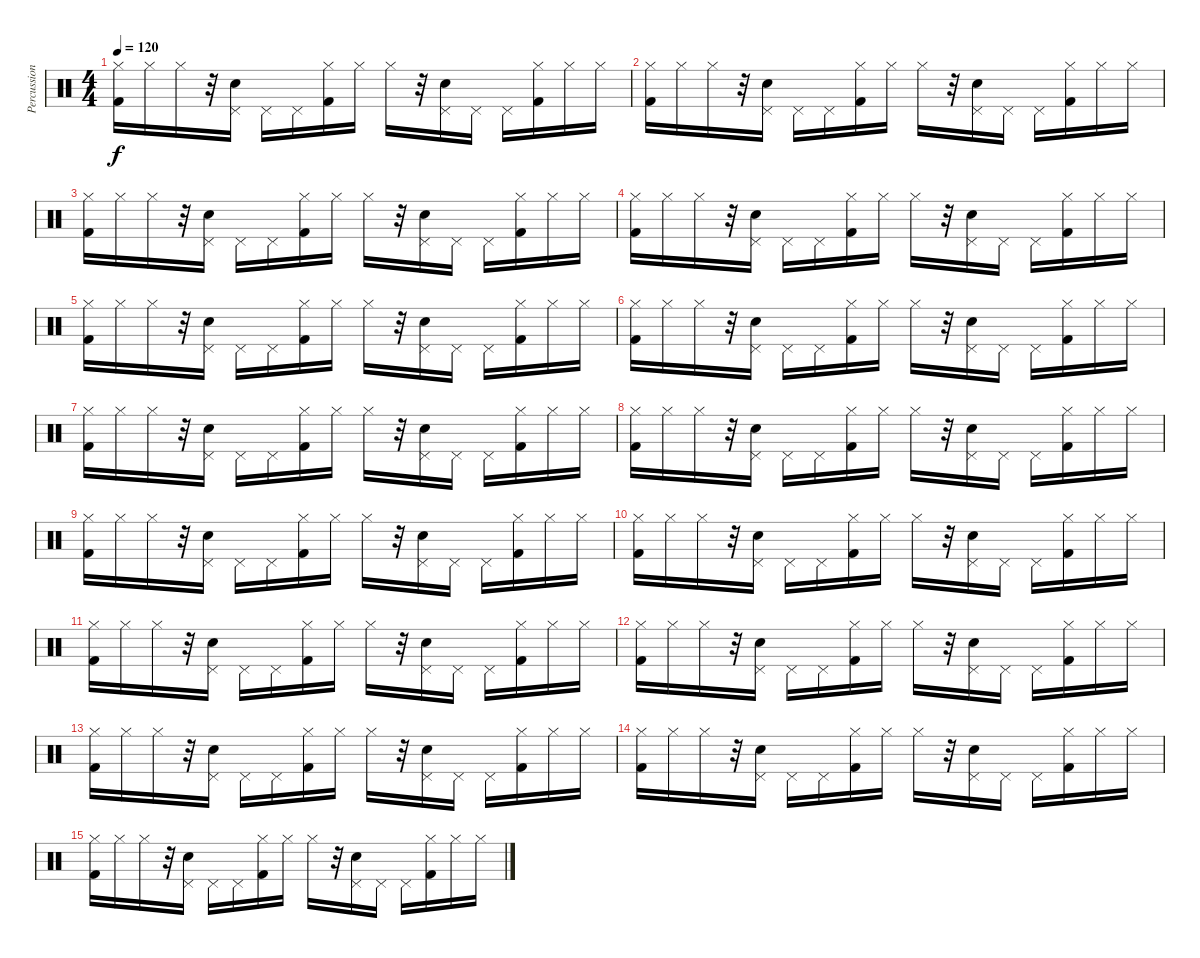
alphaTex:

\track ("Percussioni" "Percussion") {instrument percussion}
\staff {score}
\articulation defaults
\ts (4 4)
\tempo 120
\clef neutral
\ks c
("Hi-Hat (closed)" "Kick (hit) 2").16{dy f} "Hi-Hat (closed)".16 "Hi-Hat (closed)".16 r.32 ("Pedal Hi-Hat (hit)" "Electric Snare (hit)").16 "Pedal Hi-Hat (hit)".16 "Pedal Hi-Hat (hit)".16 ("Hi-Hat (closed)" "Kick (hit) 2").16 "Hi-Hat (closed)".16 "Hi-Hat (closed)".16 r.32 ("Pedal Hi-Hat (hit)" "Electric Snare (hit)").16 "Pedal Hi-Hat (hit)".16 "Pedal Hi-Hat (hit)".16 ("Hi-Hat (closed)" "Kick (hit) 2").16 "Hi-Hat (closed)".16 "Hi-Hat (closed)".16 |
("Hi-Hat (closed)" "Kick (hit) 2").16 "Hi-Hat (closed)".16 "Hi-Hat (closed)".16 r.32 ("Pedal Hi-Hat (hit)" "Electric Snare (hit)").16 "Pedal Hi-Hat (hit)".16 "Pedal Hi-Hat (hit)".16 ("Hi-Hat (closed)" "Kick (hit) 2").16 "Hi-Hat (closed)".16 "Hi-Hat (closed)".16 r.32 ("Pedal Hi-Hat (hit)" "Electric Snare (hit)").16 "Pedal Hi-Hat (hit)".16 "Pedal Hi-Hat (hit)".16 ("Hi-Hat (closed)" "Kick (hit) 2").16 "Hi-Hat (closed)".16 "Hi-Hat (closed)".16 |
("Hi-Hat (closed)" "Kick (hit) 2").16 "Hi-Hat (closed)".16 "Hi-Hat (closed)".16 r.32 ("Pedal Hi-Hat (hit)" "Electric Snare (hit)").16 "Pedal Hi-Hat (hit)".16 "Pedal Hi-Hat (hit)".16 ("Hi-Hat (closed)" "Kick (hit) 2").16 "Hi-Hat (closed)".16 "Hi-Hat (closed)".16 r.32 ("Pedal Hi-Hat (hit)" "Electric Snare (hit)").16 "Pedal Hi-Hat (hit)".16 "Pedal Hi-Hat (hit)".16 ("Hi-Hat (closed)" "Kick (hit) 2").16 "Hi-Hat (closed)".16 "Hi-Hat (closed)".16 |
("Hi-Hat (closed)" "Kick (hit) 2").16 "Hi-Hat (closed)".16 "Hi-Hat (closed)".16 r.32 ("Pedal Hi-Hat (hit)" "Electric Snare (hit)").16 "Pedal Hi-Hat (hit)".16 "Pedal Hi-Hat (hit)".16 ("Hi-Hat (closed)" "Kick (hit) 2").16 "Hi-Hat (closed)".16 "Hi-Hat (closed)".16 r.32 ("Pedal Hi-Hat (hit)" "Electric Snare (hit)").16 "Pedal Hi-Hat (hit)".16 "Pedal Hi-Hat (hit)".16 ("Hi-Hat (closed)" "Kick (hit) 2").16 "Hi-Hat (closed)".16 "Hi-Hat (closed)".16 |
("Hi-Hat (closed)" "Kick (hit) 2").16 "Hi-Hat (closed)".16 "Hi-Hat (closed)".16 r.32 ("Pedal Hi-Hat (hit)" "Electric Snare (hit)").16 "Pedal Hi-Hat (hit)".16 "Pedal Hi-Hat (hit)".16 ("Hi-Hat (closed)" "Kick (hit) 2").16 "Hi-Hat (closed)".16 "Hi-Hat (closed)".16 r.32 ("Pedal Hi-Hat (hit)" "Electric Snare (hit)").16 "Pedal Hi-Hat (hit)".16 "Pedal Hi-Hat (hit)".16 ("Hi-Hat (closed)" "Kick (hit) 2").16 "Hi-Hat (closed)".16 "Hi-Hat (closed)".16 |
("Hi-Hat (closed)" "Kick (hit) 2").16 "Hi-Hat (closed)".16 "Hi-Hat (closed)".16 r.32 ("Pedal Hi-Hat (hit)" "Electric Snare (hit)").16 "Pedal Hi-Hat (hit)".16 "Pedal Hi-Hat (hit)".16 ("Hi-Hat (closed)" "Kick (hit) 2").16 "Hi-Hat (closed)".16 "Hi-Hat (closed)".16 r.32 ("Pedal Hi-Hat (hit)" "Electric Snare (hit)").16 "Pedal Hi-Hat (hit)".16 "Pedal Hi-Hat (hit)".16 ("Hi-Hat (closed)" "Kick (hit) 2").16 "Hi-Hat (closed)".16 "Hi-Hat (closed)".16 |
("Hi-Hat (closed)" "Kick (hit) 2").16 "Hi-Hat (closed)".16 "Hi-Hat (closed)".16 r.32 ("Pedal Hi-Hat (hit)" "Electric Snare (hit)").16 "Pedal Hi-Hat (hit)".16 "Pedal Hi-Hat (hit)".16 ("Hi-Hat (closed)" "Kick (hit) 2").16 "Hi-Hat (closed)".16 "Hi-Hat (closed)".16 r.32 ("Pedal Hi-Hat (hit)" "Electric Snare (hit)").16 "Pedal Hi-Hat (hit)".16 "Pedal Hi-Hat (hit)".16 ("Hi-Hat (closed)" "Kick (hit) 2").16 "Hi-Hat (closed)".16 "Hi-Hat (closed)".16 |
("Hi-Hat (closed)" "Kick (hit) 2").16 "Hi-Hat (closed)".16 "Hi-Hat (closed)".16 r.32 ("Pedal Hi-Hat (hit)" "Electric Snare (hit)").16 "Pedal Hi-Hat (hit)".16 "Pedal Hi-Hat (hit)".16 ("Hi-Hat (closed)" "Kick (hit) 2").16 "Hi-Hat (closed)".16 "Hi-Hat (closed)".16 r.32 ("Pedal Hi-Hat (hit)" "Electric Snare (hit)").16 "Pedal Hi-Hat (hit)".16 "Pedal Hi-Hat (hit)".16 ("Hi-Hat (closed)" "Kick (hit) 2").16 "Hi-Hat (closed)".16 "Hi-Hat (closed)".16 |
("Hi-Hat (closed)" "Kick (hit) 2").16 "Hi-Hat (closed)".16 "Hi-Hat (closed)".16 r.32 ("Pedal Hi-Hat (hit)" "Electric Snare (hit)").16 "Pedal Hi-Hat (hit)".16 "Pedal Hi-Hat (hit)".16 ("Hi-Hat (closed)" "Kick (hit) 2").16 "Hi-Hat (closed)".16 "Hi-Hat (closed)".16 r.32 ("Pedal Hi-Hat (hit)" "Electric Snare (hit)").16 "Pedal Hi-Hat (hit)".16 "Pedal Hi-Hat (hit)".16 ("Hi-Hat (closed)" "Kick (hit) 2").16 "Hi-Hat (closed)".16 "Hi-Hat (closed)".16 |
("Hi-Hat (closed)" "Kick (hit) 2").16 "Hi-Hat (closed)".16 "Hi-Hat (closed)".16 r.32 ("Pedal Hi-Hat (hit)" "Electric Snare (hit)").16 "Pedal Hi-Hat (hit)".16 "Pedal Hi-Hat (hit)".16 ("Hi-Hat (closed)" "Kick (hit) 2").16 "Hi-Hat (closed)".16 "Hi-Hat (closed)".16 r.32 ("Pedal Hi-Hat (hit)" "Electric Snare (hit)").16 "Pedal Hi-Hat (hit)".16 "Pedal Hi-Hat (hit)".16 ("Hi-Hat (closed)" "Kick (hit) 2").16 "Hi-Hat (closed)".16 "Hi-Hat (closed)".16 |
("Hi-Hat (closed)" "Kick (hit) 2").16 "Hi-Hat (closed)".16 "Hi-Hat (closed)".16 r.32 ("Pedal Hi-Hat (hit)" "Electric Snare (hit)").16 "Pedal Hi-Hat (hit)".16 "Pedal Hi-Hat (hit)".16 ("Hi-Hat (closed)" "Kick (hit) 2").16 "Hi-Hat (closed)".16 "Hi-Hat (closed)".16 r.32 ("Pedal Hi-Hat (hit)" "Electric Snare (hit)").16 "Pedal Hi-Hat (hit)".16 "Pedal Hi-Hat (hit)".16 ("Hi-Hat (closed)" "Kick (hit) 2").16 "Hi-Hat (closed)".16 "Hi-Hat (closed)".16 |
("Hi-Hat (closed)" "Kick (hit) 2").16 "Hi-Hat (closed)".16 "Hi-Hat (closed)".16 r.32 ("Pedal Hi-Hat (hit)" "Electric Snare (hit)").16 "Pedal Hi-Hat (hit)".16 "Pedal Hi-Hat (hit)".16 ("Hi-Hat (closed)" "Kick (hit) 2").16 "Hi-Hat (closed)".16 "Hi-Hat (closed)".16 r.32 ("Pedal Hi-Hat (hit)" "Electric Snare (hit)").16 "Pedal Hi-Hat (hit)".16 "Pedal Hi-Hat (hit)".16 ("Hi-Hat (closed)" "Kick (hit) 2").16 "Hi-Hat (closed)".16 "Hi-Hat (closed)".16 |
("Hi-Hat (closed)" "Kick (hit) 2").16 "Hi-Hat (closed)".16 "Hi-Hat (closed)".16 r.32 ("Pedal Hi-Hat (hit)" "Electric Snare (hit)").16 "Pedal Hi-Hat (hit)".16 "Pedal Hi-Hat (hit)".16 ("Hi-Hat (closed)" "Kick (hit) 2").16 "Hi-Hat (closed)".16 "Hi-Hat (closed)".16 r.32 ("Pedal Hi-Hat (hit)" "Electric Snare (hit)").16 "Pedal Hi-Hat (hit)".16 "Pedal Hi-Hat (hit)".16 ("Hi-Hat (closed)" "Kick (hit) 2").16 "Hi-Hat (closed)".16 "Hi-Hat (closed)".16 |
("Hi-Hat (closed)" "Kick (hit) 2").16 "Hi-Hat (closed)".16 "Hi-Hat (closed)".16 r.32 ("Pedal Hi-Hat (hit)" "Electric Snare (hit)").16 "Pedal Hi-Hat (hit)".16 "Pedal Hi-Hat (hit)".16 ("Hi-Hat (closed)" "Kick (hit) 2").16 "Hi-Hat (closed)".16 "Hi-Hat (closed)".16 r.32 ("Pedal Hi-Hat (hit)" "Electric Snare (hit)").16 "Pedal Hi-Hat (hit)".16 "Pedal Hi-Hat (hit)".16 ("Hi-Hat (closed)" "Kick (hit) 2").16 "Hi-Hat (closed)".16 "Hi-Hat (closed)".16 |
("Hi-Hat (closed)" "Kick (hit) 2").16 "Hi-Hat (closed)".16 "Hi-Hat (closed)".16 r.32 ("Pedal Hi-Hat (hit)" "Electric Snare (hit)").16 "Pedal Hi-Hat (hit)".16 "Pedal Hi-Hat (hit)".16 ("Hi-Hat (closed)" "Kick (hit) 2").16 "Hi-Hat (closed)".16 "Hi-Hat (closed)".16 r.32 ("Pedal Hi-Hat (hit)" "Electric Snare (hit)").16 "Pedal Hi-Hat (hit)".16 "Pedal Hi-Hat (hit)".16 ("Hi-Hat (closed)" "Kick (hit) 2").16 "Hi-Hat (closed)".16 "Hi-Hat (closed)".16
